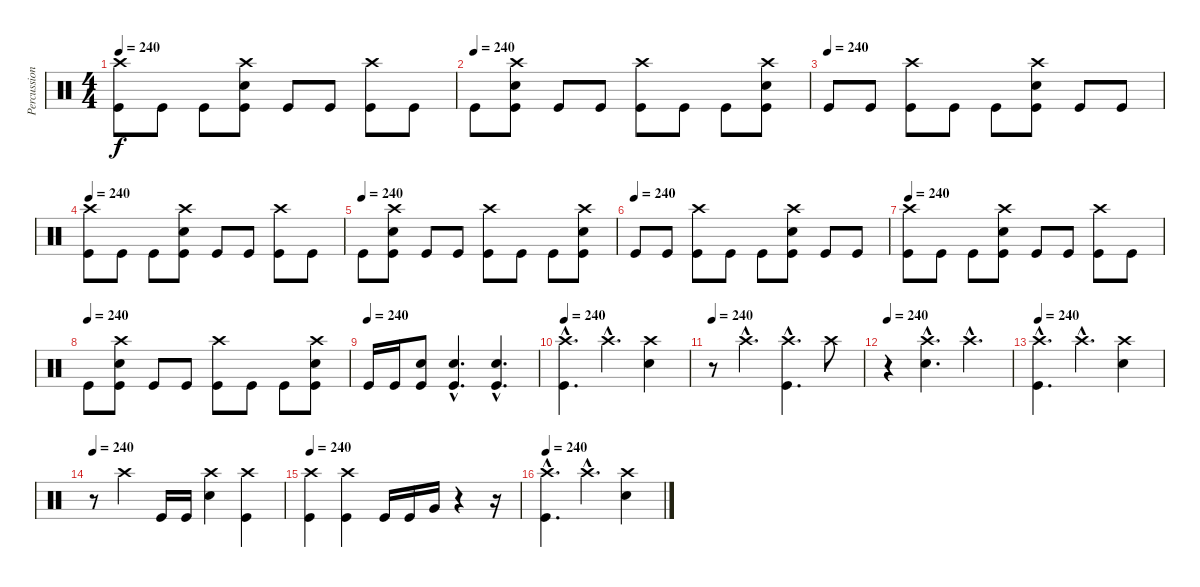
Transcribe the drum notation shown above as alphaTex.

\track ("Percussion" "Percussion") {instrument percussion}
\staff {score}
\articulation defaults
\ts (4 4)
\tempo 240
\clef neutral
\ks c
("Crash high (hit)" "Kick (hit)").8{dy f} "Kick (hit)".8 "Kick (hit)".8 ("Electric Snare (hit)" "Crash high (hit)" "Kick (hit)").8 "Kick (hit)".8 "Kick (hit)".8 ("Crash high (hit)" "Kick (hit)").8 "Kick (hit)".8 |
\tempo (240)
"Kick (hit)".8 ("Electric Snare (hit)" "Crash high (hit)" "Kick (hit)").8 "Kick (hit)".8 "Kick (hit)".8 ("Crash high (hit)" "Kick (hit)").8 "Kick (hit)".8 "Kick (hit)".8 ("Electric Snare (hit)" "Crash high (hit)" "Kick (hit)").8 |
\tempo (240)
"Kick (hit)".8 "Kick (hit)".8 ("Crash high (hit)" "Kick (hit)").8 "Kick (hit)".8 "Kick (hit)".8 ("Electric Snare (hit)" "Crash high (hit)" "Kick (hit)").8 "Kick (hit)".8 "Kick (hit)".8 |
\tempo 240
("Crash high (hit)" "Kick (hit)").8 "Kick (hit)".8 "Kick (hit)".8 ("Electric Snare (hit)" "Crash high (hit)" "Kick (hit)").8 "Kick (hit)".8 "Kick (hit)".8 ("Crash high (hit)" "Kick (hit)").8 "Kick (hit)".8 |
\tempo (240)
"Kick (hit)".8 ("Electric Snare (hit)" "Crash high (hit)" "Kick (hit)").8 "Kick (hit)".8 "Kick (hit)".8 ("Crash high (hit)" "Kick (hit)").8 "Kick (hit)".8 "Kick (hit)".8 ("Electric Snare (hit)" "Crash high (hit)" "Kick (hit)").8 |
\tempo (240)
"Kick (hit)".8 "Kick (hit)".8 ("Crash high (hit)" "Kick (hit)").8 "Kick (hit)".8 "Kick (hit)".8 ("Electric Snare (hit)" "Crash high (hit)" "Kick (hit)").8 "Kick (hit)".8 "Kick (hit)".8 |
\tempo 240
("Crash high (hit)" "Kick (hit)").8 "Kick (hit)".8 "Kick (hit)".8 ("Electric Snare (hit)" "Crash high (hit)" "Kick (hit)").8 "Kick (hit)".8 "Kick (hit)".8 ("Crash high (hit)" "Kick (hit)").8 "Kick (hit)".8 |
\tempo (240)
"Kick (hit)".8 ("Electric Snare (hit)" "Crash high (hit)" "Kick (hit)").8 "Kick (hit)".8 "Kick (hit)".8 ("Crash high (hit)" "Kick (hit)").8 "Kick (hit)".8 "Kick (hit)".8 ("Electric Snare (hit)" "Crash high (hit)" "Kick (hit)").8 |
\tempo (240)
"Kick (hit)".16 "Kick (hit)".16 ("Electric Snare (hit)" "Kick (hit)").8 ("Electric Snare (hit)"{hac} "Kick (hit)"{hac}).4{d} ("Electric Snare (hit)"{hac} "Kick (hit)"{hac}).4{d} |
\tempo 240
("Crash high (hit)"{hac} "Kick (hit)"{hac}).4{d} "Crash high (hit)"{hac}.4{d} ("Crash high (hit)" "Electric Snare (hit)").4 |
\tempo 240
r.8 "Crash high (hit)"{hac}.4{d} ("Crash high (hit)"{hac} "Kick (hit)"{hac}).4{d} "Crash high (hit)".8 |
\tempo 240
r.4 ("Crash high (hit)"{hac} "Electric Snare (hit)"{hac}).4{d} "Crash high (hit)"{hac}.4{d} |
\tempo 240
("Crash high (hit)"{hac} "Kick (hit)"{hac}).4{d} "Crash high (hit)"{hac}.4{d} ("Crash high (hit)" "Electric Snare (hit)").4 |
\tempo 240
r.8 "Crash high (hit)".4 "Kick (hit)".16 "Kick (hit)".16 ("Crash high (hit)" "Electric Snare (hit)").4 ("Crash high (hit)" "Kick (hit)").4 |
\tempo 240
("Crash high (hit)" "Kick (hit)").4 ("Crash high (hit)" "Kick (hit)").4 "Kick (hit)".16 "Kick (hit)".16 "Very Low Tom (hit)".16 r.4 r.16 |
\tempo 240
("Crash high (hit)"{hac} "Kick (hit)"{hac}).4{d} "Crash high (hit)"{hac}.4{d} ("Crash high (hit)" "Electric Snare (hit)").4
